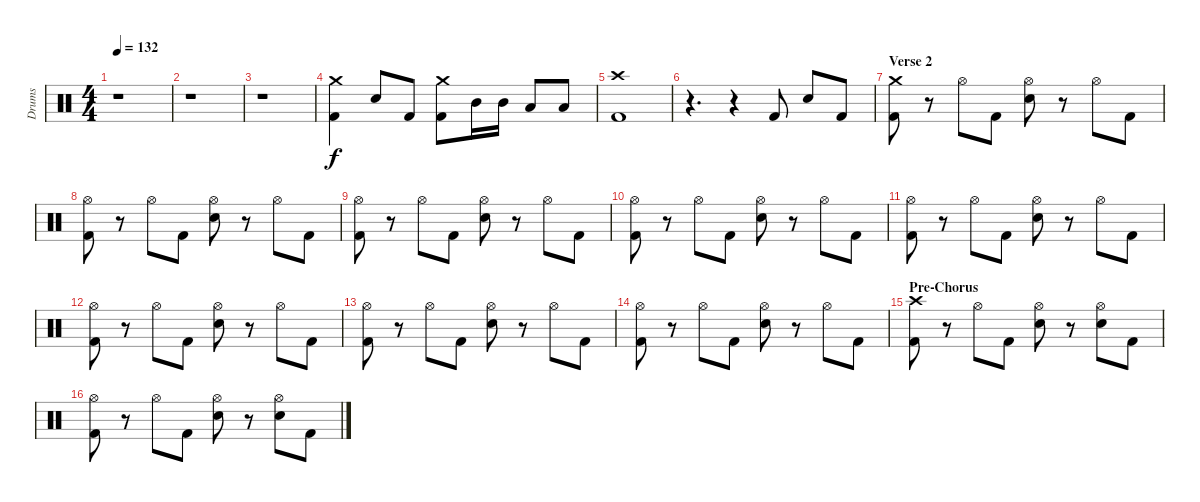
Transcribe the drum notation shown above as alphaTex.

\track ("Drums" "Drums") {instrument percussion}
\staff {score}
\articulation defaults
\ts (4 4)
\tempo 132
\clef neutral
\ks c
r.1{dy f} |
r.1 |
r.1 |
("Crash medium (hit)" "Kick (hit) 2").4 "Snare (hit) 2".8 "Kick (hit) 2".8 ("Crash medium (hit)" "Kick (hit) 2").8 "Mid Tom (hit)".16 "Mid Tom (hit)".16 "Low Tom (hit)".8 "Low Tom (hit)".8 |
("Crash high (hit)" "Kick (hit) 2").1 |
r.4{d} r.4 "Kick (hit) 2".8 "Snare (hit) 2".8 "Kick (hit) 2".8 |
\section ("" "Verse 2")
("Crash medium (hit)" "Kick (hit) 2").8 r.8 "Hi-Hat (open)".8 "Kick (hit) 2".8 ("Hi-Hat (open)" "Snare (hit) 2").8 r.8 "Hi-Hat (open)".8 "Kick (hit) 2".8 |
("Hi-Hat (open)" "Kick (hit) 2").8 r.8 "Hi-Hat (open)".8 "Kick (hit) 2".8 ("Hi-Hat (open)" "Snare (hit) 2").8 r.8 "Hi-Hat (open)".8 "Kick (hit) 2".8 |
("Hi-Hat (open)" "Kick (hit) 2").8 r.8 "Hi-Hat (open)".8 "Kick (hit) 2".8 ("Hi-Hat (open)" "Snare (hit) 2").8 r.8 "Hi-Hat (open)".8 "Kick (hit) 2".8 |
("Hi-Hat (open)" "Kick (hit) 2").8 r.8 "Hi-Hat (open)".8 "Kick (hit) 2".8 ("Hi-Hat (open)" "Snare (hit) 2").8 r.8 "Hi-Hat (open)".8 "Kick (hit) 2".8 |
("Hi-Hat (open)" "Kick (hit) 2").8 r.8 "Hi-Hat (open)".8 "Kick (hit) 2".8 ("Hi-Hat (open)" "Snare (hit) 2").8 r.8 "Hi-Hat (open)".8 "Kick (hit) 2".8 |
("Hi-Hat (open)" "Kick (hit) 2").8 r.8 "Hi-Hat (open)".8 "Kick (hit) 2".8 ("Hi-Hat (open)" "Snare (hit) 2").8 r.8 "Hi-Hat (open)".8 "Kick (hit) 2".8 |
("Hi-Hat (open)" "Kick (hit) 2").8 r.8 "Hi-Hat (open)".8 "Kick (hit) 2".8 ("Hi-Hat (open)" "Snare (hit) 2").8 r.8 "Hi-Hat (open)".8 "Kick (hit) 2".8 |
("Hi-Hat (open)" "Kick (hit) 2").8 r.8 "Hi-Hat (open)".8 "Kick (hit) 2".8 ("Hi-Hat (open)" "Snare (hit) 2").8 r.8 "Hi-Hat (open)".8 "Kick (hit) 2".8 |
\section ("" "Pre-Chorus")
("Crash high (hit)" "Kick (hit) 2").8 r.8 "Hi-Hat (open)".8 "Kick (hit) 2".8 ("Hi-Hat (open)" "Snare (hit) 2").8 r.8 ("Hi-Hat (open)" "Snare (hit) 2").8 "Kick (hit) 2".8 |
("Hi-Hat (open)" "Kick (hit) 2").8 r.8 "Hi-Hat (open)".8 "Kick (hit) 2".8 ("Hi-Hat (open)" "Snare (hit) 2").8 r.8 ("Hi-Hat (open)" "Snare (hit) 2").8 "Kick (hit) 2".8
